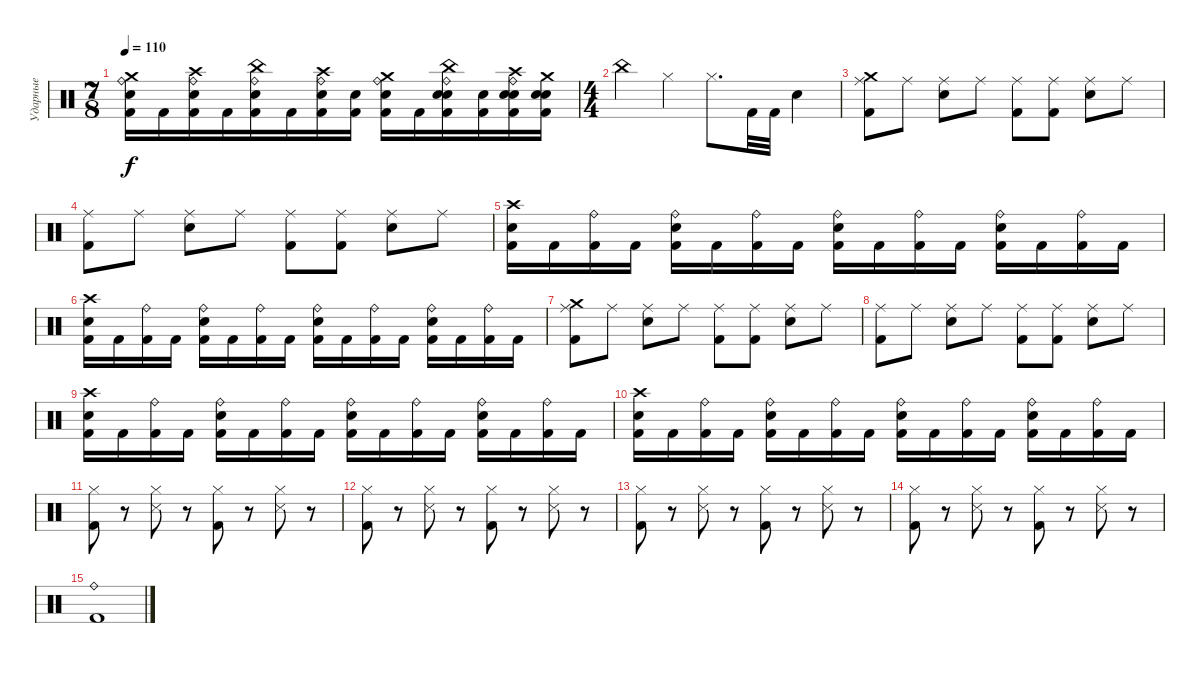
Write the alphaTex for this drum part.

\track ("Ударные" "Ударные") {instrument percussion}
\staff {score}
\articulation defaults
\ts (7 8)
\tempo 110
\clef neutral
\ks c
("Electric Snare (hit)" "Crash medium (hit)" "Kick (hit) 2" "Ride (bell)").16{dy f} "Kick (hit) 2".16 ("Crash high (hit)" "Electric Snare (hit)" "Kick (hit) 2" "Ride (bell)").16 "Kick (hit) 2".16 ("China (hit)" "Electric Snare (hit)" "Kick (hit) 2" "Ride (bell)").16 "Kick (hit) 2".16 ("Crash high (hit)" "Electric Snare (hit)" "Kick (hit) 2" "Ride (bell)").16 ("Electric Snare (hit)" "Kick (hit) 2").16 ("Crash medium (hit)" "Electric Snare (hit)" "Kick (hit) 2" "Ride (bell)").16 "Kick (hit) 2".16 ("China (hit)" "Electric Snare (hit)" "Kick (hit) 2" "Electric Snare (hit)" "Ride (bell)").16 ("Kick (hit) 2" "Electric Snare (hit)").16 ("Crash high (hit)" "Electric Snare (hit)" "Kick (hit) 2" "Electric Snare (hit)" "Ride (bell)").16 ("Crash medium (hit)" "Electric Snare (hit)" "Kick (hit) 2" "Electric Snare (hit)").16 |
\ts (4 4)
"China (hit)".4 "Hi-Hat (closed)".4 "Hi-Hat (closed)".8{d} "Kick (hit) 2".32 "Kick (hit) 2".32 "Electric Snare (hit)".4 |
("Crash medium (hit)" "Kick (hit) 2" "Ride (middle)").8 "Ride (middle)".8 ("Electric Snare (hit)" "Ride (middle)").8 "Ride (middle)".8 ("Kick (hit) 2" "Ride (middle)").8 ("Kick (hit) 2" "Ride (middle)").8 ("Electric Snare (hit)" "Ride (middle)").8 "Ride (middle)".8 |
("Kick (hit) 2" "Ride (middle)").8 "Ride (middle)".8 ("Electric Snare (hit)" "Ride (middle)").8 "Ride (middle)".8 ("Kick (hit) 2" "Ride (middle)").8 ("Kick (hit) 2" "Ride (middle)").8 ("Electric Snare (hit)" "Ride (middle)").8 "Ride (middle)".8 |
("Kick (hit) 2" "Electric Snare (hit)" "Crash high (hit)").16 "Kick (hit) 2".16 ("Kick (hit) 2" "Ride (bell)").16 "Kick (hit) 2".16 ("Kick (hit) 2" "Electric Snare (hit)" "Ride (bell)").16 "Kick (hit) 2".16 ("Kick (hit) 2" "Ride (bell)").16 "Kick (hit) 2".16 ("Kick (hit) 2" "Electric Snare (hit)" "Ride (bell)").16 "Kick (hit) 2".16 ("Kick (hit) 2" "Ride (bell)").16 "Kick (hit) 2".16 ("Kick (hit) 2" "Electric Snare (hit)" "Ride (bell)").16 "Kick (hit) 2".16 ("Kick (hit) 2" "Ride (bell)").16 "Kick (hit) 2".16 |
("Kick (hit) 2" "Electric Snare (hit)" "Crash high (hit)").16 "Kick (hit) 2".16 ("Kick (hit) 2" "Ride (bell)").16 "Kick (hit) 2".16 ("Kick (hit) 2" "Electric Snare (hit)" "Ride (bell)").16 "Kick (hit) 2".16 ("Kick (hit) 2" "Ride (bell)").16 "Kick (hit) 2".16 ("Kick (hit) 2" "Electric Snare (hit)" "Ride (bell)").16 "Kick (hit) 2".16 ("Kick (hit) 2" "Ride (bell)").16 "Kick (hit) 2".16 ("Kick (hit) 2" "Electric Snare (hit)" "Ride (bell)").16 "Kick (hit) 2".16 ("Kick (hit) 2" "Ride (bell)").16 "Kick (hit) 2".16 |
("Crash medium (hit)" "Kick (hit) 2" "Ride (middle)").8 "Ride (middle)".8 ("Electric Snare (hit)" "Ride (middle)").8 "Ride (middle)".8 ("Kick (hit) 2" "Ride (middle)").8 ("Kick (hit) 2" "Ride (middle)").8 ("Electric Snare (hit)" "Ride (middle)").8 "Ride (middle)".8 |
("Kick (hit) 2" "Ride (middle)").8 "Ride (middle)".8 ("Electric Snare (hit)" "Ride (middle)").8 "Ride (middle)".8 ("Kick (hit) 2" "Ride (middle)").8 ("Kick (hit) 2" "Ride (middle)").8 ("Electric Snare (hit)" "Ride (middle)").8 "Ride (middle)".8 |
("Kick (hit) 2" "Electric Snare (hit)" "Crash high (hit)").16 "Kick (hit) 2".16 ("Kick (hit) 2" "Ride (bell)").16 "Kick (hit) 2".16 ("Kick (hit) 2" "Electric Snare (hit)" "Ride (bell)").16 "Kick (hit) 2".16 ("Kick (hit) 2" "Ride (bell)").16 "Kick (hit) 2".16 ("Kick (hit) 2" "Electric Snare (hit)" "Ride (bell)").16 "Kick (hit) 2".16 ("Kick (hit) 2" "Ride (bell)").16 "Kick (hit) 2".16 ("Kick (hit) 2" "Electric Snare (hit)" "Ride (bell)").16 "Kick (hit) 2".16 ("Kick (hit) 2" "Ride (bell)").16 "Kick (hit) 2".16 |
("Kick (hit) 2" "Electric Snare (hit)" "Crash high (hit)").16 "Kick (hit) 2".16 ("Kick (hit) 2" "Ride (bell)").16 "Kick (hit) 2".16 ("Kick (hit) 2" "Electric Snare (hit)" "Ride (bell)").16 "Kick (hit) 2".16 ("Kick (hit) 2" "Ride (bell)").16 "Kick (hit) 2".16 ("Kick (hit) 2" "Electric Snare (hit)" "Ride (bell)").16 "Kick (hit) 2".16 ("Kick (hit) 2" "Ride (bell)").16 "Kick (hit) 2".16 ("Kick (hit) 2" "Electric Snare (hit)" "Ride (bell)").16 "Kick (hit) 2".16 ("Kick (hit) 2" "Ride (bell)").16 "Kick (hit) 2".16 |
("Kick (hit) 2" "Hi-Hat (closed)").8 r.8 ("Metronome (hit)" "Hi-Hat (closed)").8 r.8 ("Hi-Hat (closed)" "Kick (hit) 2").8 r.8 ("Hi-Hat (closed)" "Metronome (hit)").8 r.8 |
("Kick (hit) 2" "Hi-Hat (closed)").8 r.8 ("Metronome (hit)" "Hi-Hat (closed)").8 r.8 ("Hi-Hat (closed)" "Kick (hit) 2").8 r.8 ("Hi-Hat (closed)" "Metronome (hit)").8 r.8 |
("Kick (hit) 2" "Hi-Hat (closed)").8 r.8 ("Metronome (hit)" "Hi-Hat (closed)").8 r.8 ("Hi-Hat (closed)" "Kick (hit) 2").8 r.8 ("Hi-Hat (closed)" "Metronome (hit)").8 r.8 |
("Kick (hit) 2" "Hi-Hat (closed)").8 r.8 ("Metronome (hit)" "Hi-Hat (closed)").8 r.8 ("Hi-Hat (closed)" "Kick (hit) 2").8 r.8 ("Hi-Hat (closed)" "Metronome (hit)").8 r.8 |
("Ride (bell)" "Kick (hit) 2").1
